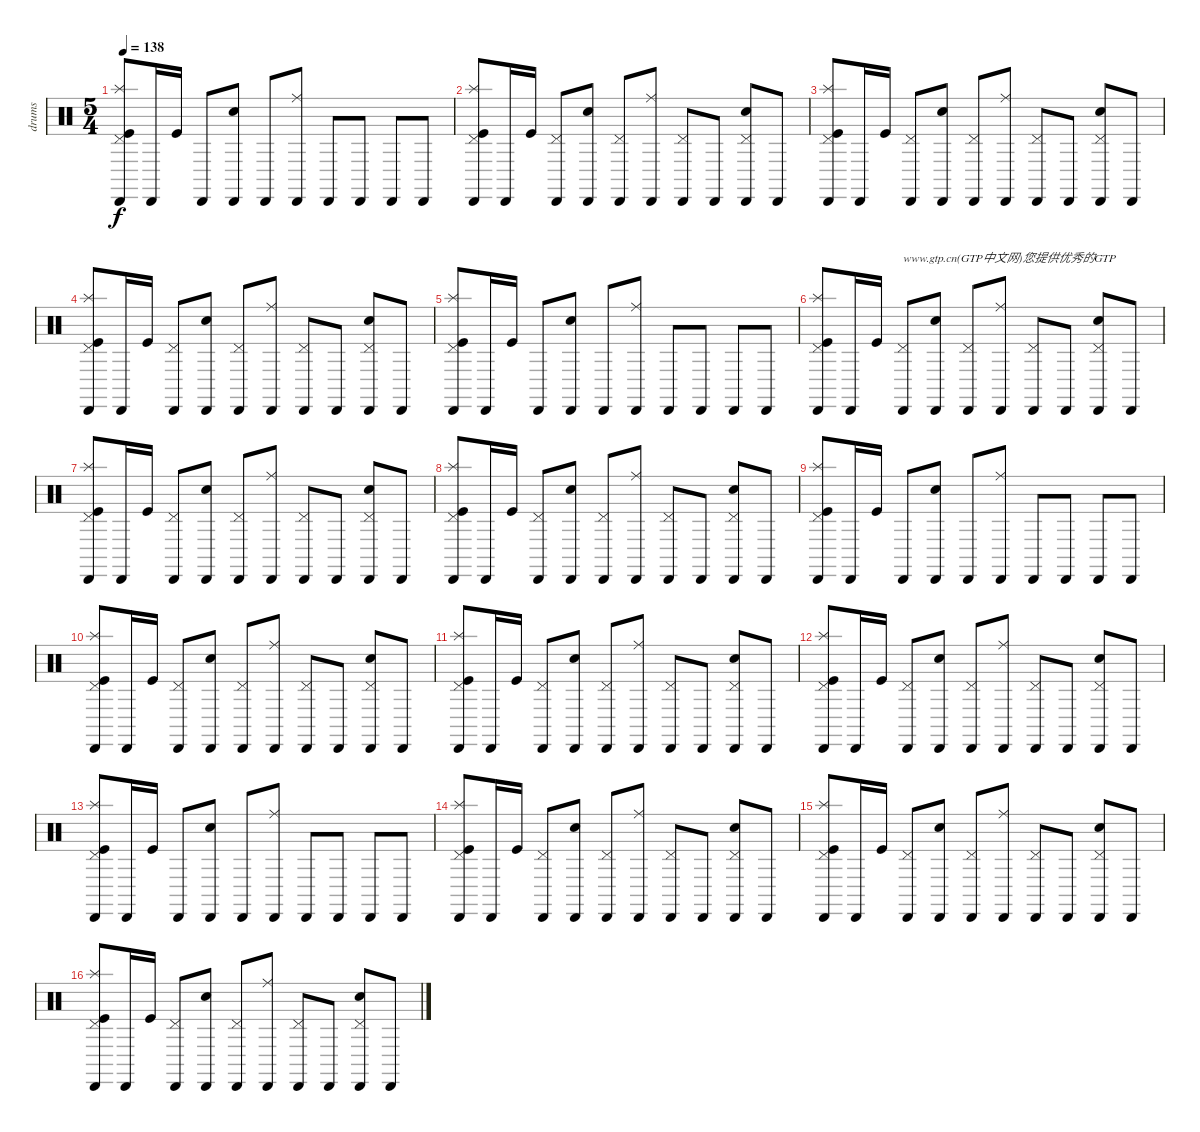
\track ("drums" "drums") {instrument percussion}
\staff {score}
\articulation defaults
\ts (5 4)
\tempo 138
\clef neutral
\ks c
("Pedal Hi-Hat (hit)" "Splash (hit)" "Kick (hit)" "Cabasa (hit)").8{dy f} "Cabasa (hit)".16 "Kick (hit)".16 "Cabasa (hit)".8 ("Snare (hit) 2" "Cabasa (hit)").8 "Cabasa (hit)".8 ("Ride (middle)" "Cabasa (hit)").8 "Cabasa (hit)".8 "Cabasa (hit)".8 "Cabasa (hit)".8 "Cabasa (hit)".8 |
("Cabasa (hit)" "Kick (hit)" "Pedal Hi-Hat (hit)" "Splash (hit)").8 "Cabasa (hit)".16 "Kick (hit)".16 ("Pedal Hi-Hat (hit)" "Cabasa (hit)").8 ("Snare (hit) 2" "Cabasa (hit)").8 ("Pedal Hi-Hat (hit)" "Cabasa (hit)").8 ("Ride (middle)" "Cabasa (hit)").8 ("Pedal Hi-Hat (hit)" "Cabasa (hit)").8 "Cabasa (hit)".8 ("Snare (hit) 2" "Pedal Hi-Hat (hit)" "Cabasa (hit)").8 "Cabasa (hit)".8 |
("Pedal Hi-Hat (hit)" "Splash (hit)" "Kick (hit)" "Cabasa (hit)").8 "Cabasa (hit)".16 "Kick (hit)".16 ("Pedal Hi-Hat (hit)" "Cabasa (hit)").8 ("Snare (hit) 2" "Cabasa (hit)").8 ("Pedal Hi-Hat (hit)" "Cabasa (hit)").8 ("Ride (middle)" "Cabasa (hit)").8 ("Pedal Hi-Hat (hit)" "Cabasa (hit)").8 "Cabasa (hit)".8 ("Snare (hit) 2" "Pedal Hi-Hat (hit)" "Cabasa (hit)").8 "Cabasa (hit)".8 |
("Kick (hit)" "Pedal Hi-Hat (hit)" "Splash (hit)" "Cabasa (hit)").8 "Cabasa (hit)".16 "Kick (hit)".16 ("Pedal Hi-Hat (hit)" "Cabasa (hit)").8 ("Snare (hit) 2" "Cabasa (hit)").8 ("Pedal Hi-Hat (hit)" "Cabasa (hit)").8 ("Ride (middle)" "Cabasa (hit)").8 ("Pedal Hi-Hat (hit)" "Cabasa (hit)").8 "Cabasa (hit)".8 ("Snare (hit) 2" "Pedal Hi-Hat (hit)" "Cabasa (hit)").8 "Cabasa (hit)".8 |
("Pedal Hi-Hat (hit)" "Splash (hit)" "Kick (hit)" "Cabasa (hit)").8 "Cabasa (hit)".16 "Kick (hit)".16 "Cabasa (hit)".8 ("Snare (hit) 2" "Cabasa (hit)").8 "Cabasa (hit)".8 ("Ride (middle)" "Cabasa (hit)").8 "Cabasa (hit)".8 "Cabasa (hit)".8 "Cabasa (hit)".8 "Cabasa (hit)".8 |
("Kick (hit)" "Pedal Hi-Hat (hit)" "Splash (hit)" "Cabasa (hit)").8 "Cabasa (hit)".16 "Kick (hit)".16 ("Pedal Hi-Hat (hit)" "Cabasa (hit)").8{txt "www.gtp.cn(GTP中文网)您提供优秀的GTP"} ("Snare (hit) 2" "Cabasa (hit)").8 ("Pedal Hi-Hat (hit)" "Cabasa (hit)").8 ("Ride (middle)" "Cabasa (hit)").8 ("Pedal Hi-Hat (hit)" "Cabasa (hit)").8 "Cabasa (hit)".8 ("Snare (hit) 2" "Pedal Hi-Hat (hit)" "Cabasa (hit)").8 "Cabasa (hit)".8 |
("Pedal Hi-Hat (hit)" "Splash (hit)" "Kick (hit)" "Cabasa (hit)").8 "Cabasa (hit)".16 "Kick (hit)".16 ("Pedal Hi-Hat (hit)" "Cabasa (hit)").8 ("Snare (hit) 2" "Cabasa (hit)").8 ("Pedal Hi-Hat (hit)" "Cabasa (hit)").8 ("Ride (middle)" "Cabasa (hit)").8 ("Pedal Hi-Hat (hit)" "Cabasa (hit)").8 "Cabasa (hit)".8 ("Snare (hit) 2" "Pedal Hi-Hat (hit)" "Cabasa (hit)").8 "Cabasa (hit)".8 |
("Kick (hit)" "Pedal Hi-Hat (hit)" "Splash (hit)" "Cabasa (hit)").8 "Cabasa (hit)".16 "Kick (hit)".16 ("Pedal Hi-Hat (hit)" "Cabasa (hit)").8 ("Snare (hit) 2" "Cabasa (hit)").8 ("Pedal Hi-Hat (hit)" "Cabasa (hit)").8 ("Ride (middle)" "Cabasa (hit)").8 ("Pedal Hi-Hat (hit)" "Cabasa (hit)").8 "Cabasa (hit)".8 ("Snare (hit) 2" "Pedal Hi-Hat (hit)" "Cabasa (hit)").8 "Cabasa (hit)".8 |
("Pedal Hi-Hat (hit)" "Splash (hit)" "Kick (hit)" "Cabasa (hit)").8 "Cabasa (hit)".16 "Kick (hit)".16 "Cabasa (hit)".8 ("Snare (hit) 2" "Cabasa (hit)").8 "Cabasa (hit)".8 ("Ride (middle)" "Cabasa (hit)").8 "Cabasa (hit)".8 "Cabasa (hit)".8 "Cabasa (hit)".8 "Cabasa (hit)".8 |
("Kick (hit)" "Pedal Hi-Hat (hit)" "Splash (hit)" "Cabasa (hit)").8 "Cabasa (hit)".16 "Kick (hit)".16 ("Pedal Hi-Hat (hit)" "Cabasa (hit)").8 ("Snare (hit) 2" "Cabasa (hit)").8 ("Pedal Hi-Hat (hit)" "Cabasa (hit)").8 ("Ride (middle)" "Cabasa (hit)").8 ("Pedal Hi-Hat (hit)" "Cabasa (hit)").8 "Cabasa (hit)".8 ("Snare (hit) 2" "Pedal Hi-Hat (hit)" "Cabasa (hit)").8 "Cabasa (hit)".8 |
("Pedal Hi-Hat (hit)" "Splash (hit)" "Kick (hit)" "Cabasa (hit)").8 "Cabasa (hit)".16 "Kick (hit)".16 ("Pedal Hi-Hat (hit)" "Cabasa (hit)").8 ("Snare (hit) 2" "Cabasa (hit)").8 ("Pedal Hi-Hat (hit)" "Cabasa (hit)").8 ("Ride (middle)" "Cabasa (hit)").8 ("Pedal Hi-Hat (hit)" "Cabasa (hit)").8 "Cabasa (hit)".8 ("Snare (hit) 2" "Pedal Hi-Hat (hit)" "Cabasa (hit)").8 "Cabasa (hit)".8 |
("Kick (hit)" "Pedal Hi-Hat (hit)" "Splash (hit)" "Cabasa (hit)").8 "Cabasa (hit)".16 "Kick (hit)".16 ("Pedal Hi-Hat (hit)" "Cabasa (hit)").8 ("Snare (hit) 2" "Cabasa (hit)").8 ("Pedal Hi-Hat (hit)" "Cabasa (hit)").8 ("Ride (middle)" "Cabasa (hit)").8 ("Pedal Hi-Hat (hit)" "Cabasa (hit)").8 "Cabasa (hit)".8 ("Snare (hit) 2" "Pedal Hi-Hat (hit)" "Cabasa (hit)").8 "Cabasa (hit)".8 |
("Pedal Hi-Hat (hit)" "Splash (hit)" "Kick (hit)" "Cabasa (hit)").8 "Cabasa (hit)".16 "Kick (hit)".16 "Cabasa (hit)".8 ("Snare (hit) 2" "Cabasa (hit)").8 "Cabasa (hit)".8 ("Ride (middle)" "Cabasa (hit)").8 "Cabasa (hit)".8 "Cabasa (hit)".8 "Cabasa (hit)".8 "Cabasa (hit)".8 |
("Kick (hit)" "Pedal Hi-Hat (hit)" "Splash (hit)" "Cabasa (hit)").8 "Cabasa (hit)".16 "Kick (hit)".16 ("Pedal Hi-Hat (hit)" "Cabasa (hit)").8 ("Snare (hit) 2" "Cabasa (hit)").8 ("Pedal Hi-Hat (hit)" "Cabasa (hit)").8 ("Ride (middle)" "Cabasa (hit)").8 ("Pedal Hi-Hat (hit)" "Cabasa (hit)").8 "Cabasa (hit)".8 ("Snare (hit) 2" "Pedal Hi-Hat (hit)" "Cabasa (hit)").8 "Cabasa (hit)".8 |
("Pedal Hi-Hat (hit)" "Splash (hit)" "Kick (hit)" "Cabasa (hit)").8 "Cabasa (hit)".16 "Kick (hit)".16 ("Pedal Hi-Hat (hit)" "Cabasa (hit)").8 ("Snare (hit) 2" "Cabasa (hit)").8 ("Pedal Hi-Hat (hit)" "Cabasa (hit)").8 ("Ride (middle)" "Cabasa (hit)").8 ("Pedal Hi-Hat (hit)" "Cabasa (hit)").8 "Cabasa (hit)".8 ("Snare (hit) 2" "Pedal Hi-Hat (hit)" "Cabasa (hit)").8 "Cabasa (hit)".8 |
("Kick (hit)" "Pedal Hi-Hat (hit)" "Splash (hit)" "Cabasa (hit)").8 "Cabasa (hit)".16 "Kick (hit)".16 ("Pedal Hi-Hat (hit)" "Cabasa (hit)").8 ("Snare (hit) 2" "Cabasa (hit)").8 ("Pedal Hi-Hat (hit)" "Cabasa (hit)").8 ("Ride (middle)" "Cabasa (hit)").8 ("Pedal Hi-Hat (hit)" "Cabasa (hit)").8 "Cabasa (hit)".8 ("Snare (hit) 2" "Pedal Hi-Hat (hit)" "Cabasa (hit)").8 "Cabasa (hit)".8
